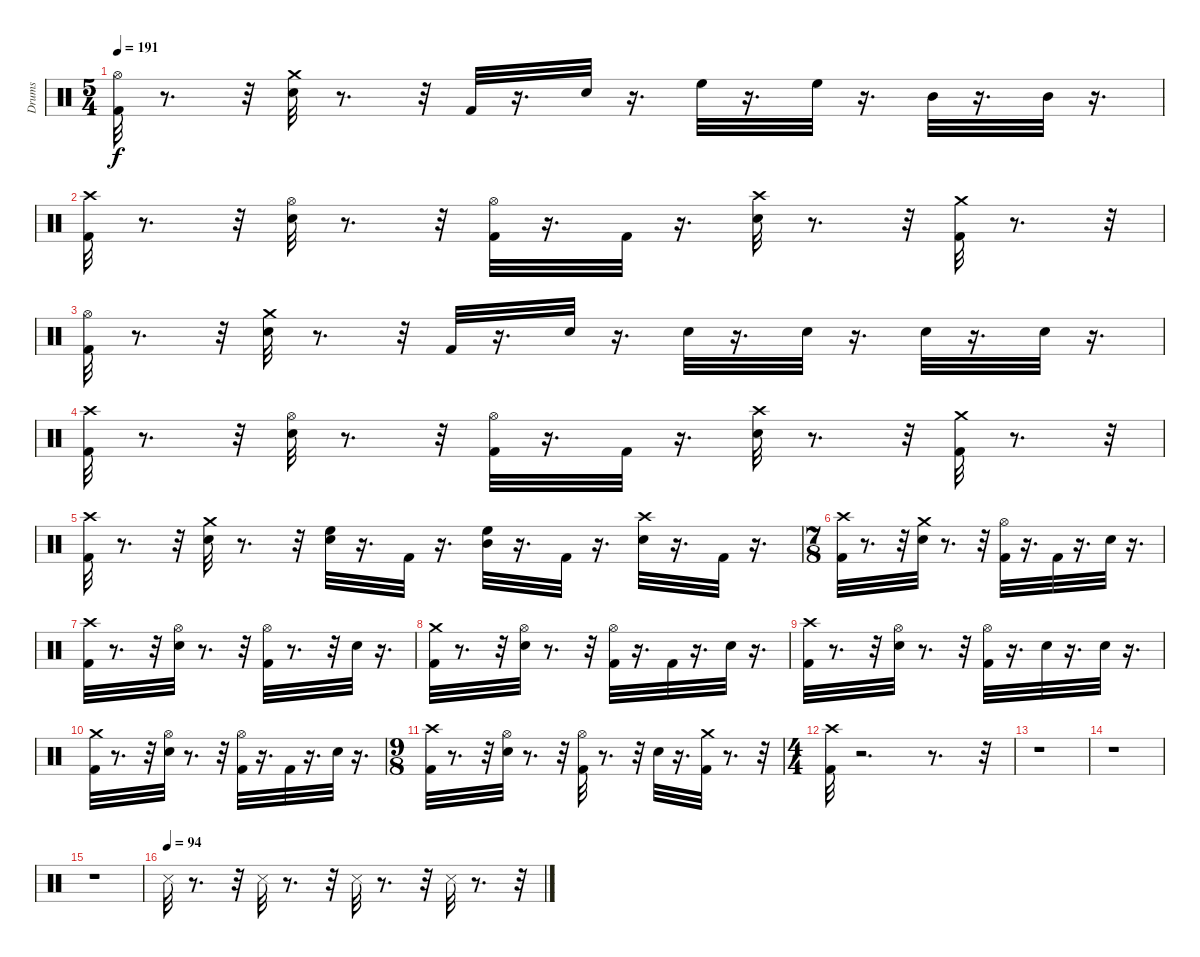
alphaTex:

\track ("Drums" "Drums") {instrument percussion}
\staff {score}
\articulation defaults
\ts (5 4)
\tempo 191
\clef neutral
\ks c
("Hi-Hat (open)" "Kick (hit) 2").32{dy f} r.8{d} r.32 ("Crash medium (hit)" "Snare (hit) 2").32 r.8{d} r.32 "Kick (hit) 2".32 r.16{d} "Snare (hit) 2".32 r.16{d} "High Floor Tom (hit)".32 r.16{d} "High Floor Tom (hit)".32 r.16{d} "Mid Tom (hit)".32 r.16{d} "Mid Tom (hit)".32 r.16{d} |
("Crash high (hit)" "Kick (hit) 2").32 r.8{d} r.32 ("Hi-Hat (open)" "Snare (hit) 2").32 r.8{d} r.32 ("Hi-Hat (open)" "Kick (hit) 2").32 r.16{d} "Kick (hit) 2".32 r.16{d} ("Crash high (hit)" "Snare (hit) 2").32 r.8{d} r.32 ("Crash medium (hit)" "Kick (hit) 2").32 r.8{d} r.32 |
("Hi-Hat (open)" "Kick (hit) 2").32 r.8{d} r.32 ("Crash medium (hit)" "Snare (hit) 2").32 r.8{d} r.32 "Kick (hit) 2".32 r.16{d} "Snare (hit) 2".32 r.16{d} "Snare (hit) 2".32 r.16{d} "Snare (hit) 2".32 r.16{d} "Snare (hit) 2".32 r.16{d} "Snare (hit) 2".32 r.16{d} |
("Crash high (hit)" "Kick (hit) 2").32 r.8{d} r.32 ("Hi-Hat (open)" "Snare (hit) 2").32 r.8{d} r.32 ("Hi-Hat (open)" "Kick (hit) 2").32 r.16{d} "Kick (hit) 2".32 r.16{d} ("Crash high (hit)" "Snare (hit) 2").32 r.8{d} r.32 ("Crash medium (hit)" "Kick (hit) 2").32 r.8{d} r.32 |
("Crash high (hit)" "Kick (hit) 2").32 r.8{d} r.32 ("Crash medium (hit)" "Snare (hit) 2").32 r.8{d} r.32 ("Snare (hit) 2" "High Floor Tom (hit)").32 r.16{d} "Kick (hit) 2".32 r.16{d} ("High Floor Tom (hit)" "Mid Tom (hit)").32 r.16{d} "Kick (hit) 2".32 r.16{d} ("Crash high (hit)" "Snare (hit) 2").32 r.16{d} "Kick (hit) 2".32 r.16{d} |
\ts (7 8)
("Kick (hit) 2" "Crash high (hit)").32 r.8{d} r.32 ("Snare (hit) 2" "Crash medium (hit)").32 r.8{d} r.32 ("Kick (hit) 2" "Hi-Hat (open)").32 r.16{d} "Kick (hit) 2".32 r.16{d} "Snare (hit) 2".32 r.16{d} |
("Crash high (hit)" "Kick (hit) 2").32 r.8{d} r.32 ("Snare (hit) 2" "Hi-Hat (open)").32 r.8{d} r.32 ("Kick (hit) 2" "Hi-Hat (open)").32 r.8{d} r.32 "Snare (hit) 2".32 r.16{d} |
("Crash medium (hit)" "Kick (hit) 2").32 r.8{d} r.32 ("Hi-Hat (open)" "Snare (hit) 2").32 r.8{d} r.32 ("Hi-Hat (open)" "Kick (hit) 2").32 r.16{d} "Kick (hit) 2".32 r.16{d} "Snare (hit) 2".32 r.16{d} |
("Crash high (hit)" "Kick (hit) 2").32 r.8{d} r.32 ("Hi-Hat (open)" "Snare (hit) 2").32 r.8{d} r.32 ("Hi-Hat (open)" "Kick (hit) 2").32 r.16{d} "Snare (hit) 2".32 r.16{d} "Snare (hit) 2".32 r.16{d} |
("Crash medium (hit)" "Kick (hit) 2").32 r.8{d} r.32 ("Hi-Hat (open)" "Snare (hit) 2").32 r.8{d} r.32 ("Hi-Hat (open)" "Kick (hit) 2").32 r.16{d} "Kick (hit) 2".32 r.16{d} "Snare (hit) 2".32 r.16{d} |
\ts (9 8)
("Crash high (hit)" "Kick (hit) 2").32 r.8{d} r.32 ("Hi-Hat (open)" "Snare (hit) 2").32 r.8{d} r.32 ("Kick (hit) 2" "Hi-Hat (open)").32 r.8{d} r.32 "Snare (hit) 2".32 r.16{d} ("Kick (hit) 2" "Crash medium (hit)").32 r.8{d} r.32 |
\ts (4 4)
("Kick (hit) 2" "Crash high (hit)").32 r.2{d} r.8{d} r.32 |
r.1 |
r.1 |
r.1 |
\tempo (94)
"Snare (side stick) 3".32 r.8{d} r.32 "Snare (side stick) 3".32 r.8{d} r.32 "Snare (side stick) 3".32 r.8{d} r.32 "Snare (side stick) 3".32 r.8{d} r.32
